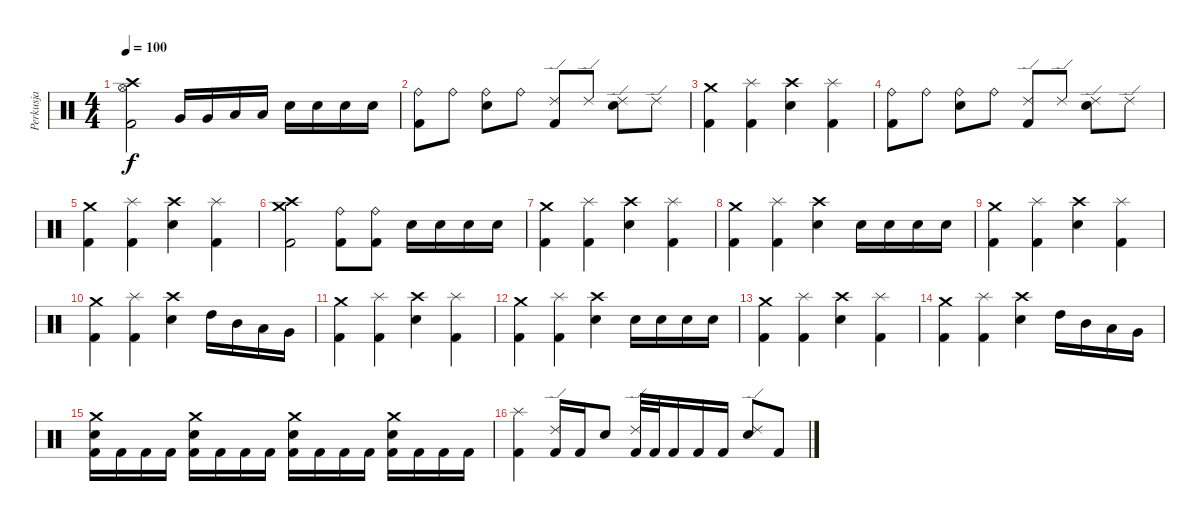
\track ("Perkusja" "Perkusja") {instrument percussion}
\staff {score}
\articulation defaults
\ts (4 4)
\tempo 100
\clef neutral
\ks c
("Crash high (hit)" "Hi-Hat (open)" "Kick (hit) 2").2{dy f} "Very Low Tom (hit)".16 "Very Low Tom (hit)".16 "Low Tom (hit)".16 "Low Tom (hit)".16 "Electric Snare (hit)".16 "Electric Snare (hit)".16 "Electric Snare (hit)".16 "Electric Snare (hit)".16 |
("Ride (bell)" "Kick (hit) 2").8 "Ride (bell)".8 ("Ride (bell)" "Electric Snare (hit)").8 "Ride (bell)".8 ("Ride (edge) 2" "Kick (hit) 2").8 "Ride (edge) 2".8 ("Ride (edge) 2" "Electric Snare (hit)").8 "Ride (edge) 2".8 |
("Crash medium (hit)" "Kick (hit) 2").4 ("Splash (hit)" "Kick (hit) 2").4 ("Crash high (hit)" "Electric Snare (hit)").4 ("Splash (hit)" "Kick (hit) 2").4 |
("Ride (bell)" "Kick (hit) 2").8 "Ride (bell)".8 ("Ride (bell)" "Electric Snare (hit)").8 "Ride (bell)".8 ("Ride (edge) 2" "Kick (hit) 2").8 "Ride (edge) 2".8 ("Ride (edge) 2" "Electric Snare (hit)").8 "Ride (edge) 2".8 |
("Crash medium (hit)" "Kick (hit) 2").4 ("Splash (hit)" "Kick (hit) 2").4 ("Crash high (hit)" "Electric Snare (hit)").4 ("Splash (hit)" "Kick (hit) 2").4 |
("Crash medium (hit)" "Crash high (hit)" "Kick (hit) 2").2 ("Ride (bell)" "Kick (hit) 2").8 ("Ride (bell)" "Kick (hit) 2").8 "Electric Snare (hit)".16 "Electric Snare (hit)".16 "Electric Snare (hit)".16 "Electric Snare (hit)".16 |
("Crash medium (hit)" "Kick (hit) 2").4 ("Splash (hit)" "Kick (hit) 2").4 ("Crash high (hit)" "Electric Snare (hit)").4 ("Splash (hit)" "Kick (hit) 2").4 |
("Crash medium (hit)" "Kick (hit) 2").4 ("Splash (hit)" "Kick (hit) 2").4 ("Crash high (hit)" "Electric Snare (hit)").4 "Electric Snare (hit)".16 "Electric Snare (hit)".16 "Electric Snare (hit)".16 "Electric Snare (hit)".16 |
("Crash medium (hit)" "Kick (hit) 2").4 ("Splash (hit)" "Kick (hit) 2").4 ("Crash high (hit)" "Electric Snare (hit)").4 ("Splash (hit)" "Kick (hit) 2").4 |
("Crash medium (hit)" "Kick (hit) 2").4 ("Splash (hit)" "Kick (hit) 2").4 ("Crash high (hit)" "Electric Snare (hit)").4 "High Tom (hit)".16 "Mid Tom (hit)".16 "Low Tom (hit)".16 "Very Low Tom (hit)".16 |
("Crash medium (hit)" "Kick (hit) 2").4 ("Splash (hit)" "Kick (hit) 2").4 ("Crash high (hit)" "Electric Snare (hit)").4 ("Splash (hit)" "Kick (hit) 2").4 |
("Crash medium (hit)" "Kick (hit) 2").4 ("Splash (hit)" "Kick (hit) 2").4 ("Crash high (hit)" "Electric Snare (hit)").4 "Electric Snare (hit)".16 "Electric Snare (hit)".16 "Electric Snare (hit)".16 "Electric Snare (hit)".16 |
("Crash medium (hit)" "Kick (hit) 2").4 ("Splash (hit)" "Kick (hit) 2").4 ("Crash high (hit)" "Electric Snare (hit)").4 ("Splash (hit)" "Kick (hit) 2").4 |
("Crash medium (hit)" "Kick (hit) 2").4 ("Splash (hit)" "Kick (hit) 2").4 ("Crash high (hit)" "Electric Snare (hit)").4 "High Tom (hit)".16 "Mid Tom (hit)".16 "Low Tom (hit)".16 "Very Low Tom (hit)".16 |
("Crash medium (hit)" "Electric Snare (hit)" "Kick (hit) 2").16 "Kick (hit) 2".16 "Kick (hit) 2".16 "Kick (hit) 2".16 ("Crash medium (hit)" "Electric Snare (hit)" "Kick (hit) 2").16 "Kick (hit) 2".16 "Kick (hit) 2".16 "Kick (hit) 2".16 ("Crash medium (hit)" "Electric Snare (hit)" "Kick (hit) 2").16 "Kick (hit) 2".16 "Kick (hit) 2".16 "Kick (hit) 2".16 ("Crash medium (hit)" "Electric Snare (hit)" "Kick (hit) 2").16 "Kick (hit) 2".16 "Kick (hit) 2".16 "Kick (hit) 2".16 |
("Splash (hit)" "Kick (hit) 2").4 ("Ride (edge) 2" "Kick (hit) 2").16 "Kick (hit) 2".16 "Electric Snare (hit)".8 ("Ride (edge) 2" "Kick (hit) 2").32 "Kick (hit) 2".32 "Kick (hit) 2".16 "Kick (hit) 2".16 "Kick (hit) 2".16 ("Ride (edge) 2" "Electric Snare (hit)").8 "Kick (hit) 2".8
